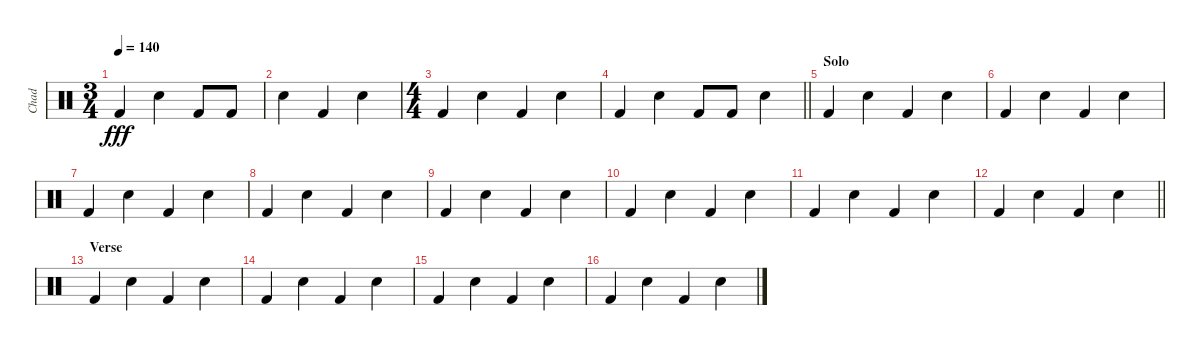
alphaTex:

\track ("Chad" "Chad") {instrument percussion}
\staff {score}
\articulation defaults
\ts (3 4)
\tempo 140
\clef neutral
\ks c "Kick (hit) 2".4{dy fff} "Electric Snare (hit)".4 "Kick (hit) 2".8 "Kick (hit) 2".8
|
"Electric Snare (hit)".4 "Kick (hit) 2".4 "Electric Snare (hit)".4 |
\ts (4 4)
"Kick (hit) 2".4 "Electric Snare (hit)".4 "Kick (hit) 2".4 "Electric Snare (hit)".4 |
\barLineRight lightlight "Kick (hit) 2".4 "Electric Snare (hit)".4 "Kick (hit) 2".8 "Kick (hit) 2".8 "Electric Snare (hit)".4
|
\section ("" "Solo")
"Kick (hit) 2".4 "Electric Snare (hit)".4 "Kick (hit) 2".4 "Electric Snare (hit)".4 |
"Kick (hit) 2".4 "Electric Snare (hit)".4 "Kick (hit) 2".4 "Electric Snare (hit)".4 |
"Kick (hit) 2".4 "Electric Snare (hit)".4 "Kick (hit) 2".4 "Electric Snare (hit)".4 |
"Kick (hit) 2".4 "Electric Snare (hit)".4 "Kick (hit) 2".4 "Electric Snare (hit)".4 |
"Kick (hit) 2".4 "Electric Snare (hit)".4 "Kick (hit) 2".4 "Electric Snare (hit)".4 |
"Kick (hit) 2".4 "Electric Snare (hit)".4 "Kick (hit) 2".4 "Electric Snare (hit)".4 |
"Kick (hit) 2".4 "Electric Snare (hit)".4 "Kick (hit) 2".4 "Electric Snare (hit)".4 |
\barLineRight lightlight "Kick (hit) 2".4 "Electric Snare (hit)".4 "Kick (hit) 2".4 "Electric Snare (hit)".4
|
\section ("" "Verse")
"Kick (hit) 2".4 "Electric Snare (hit)".4 "Kick (hit) 2".4 "Electric Snare (hit)".4 |
"Kick (hit) 2".4 "Electric Snare (hit)".4 "Kick (hit) 2".4 "Electric Snare (hit)".4 |
"Kick (hit) 2".4 "Electric Snare (hit)".4 "Kick (hit) 2".4 "Electric Snare (hit)".4 |
"Kick (hit) 2".4 "Electric Snare (hit)".4 "Kick (hit) 2".4 "Electric Snare (hit)".4
